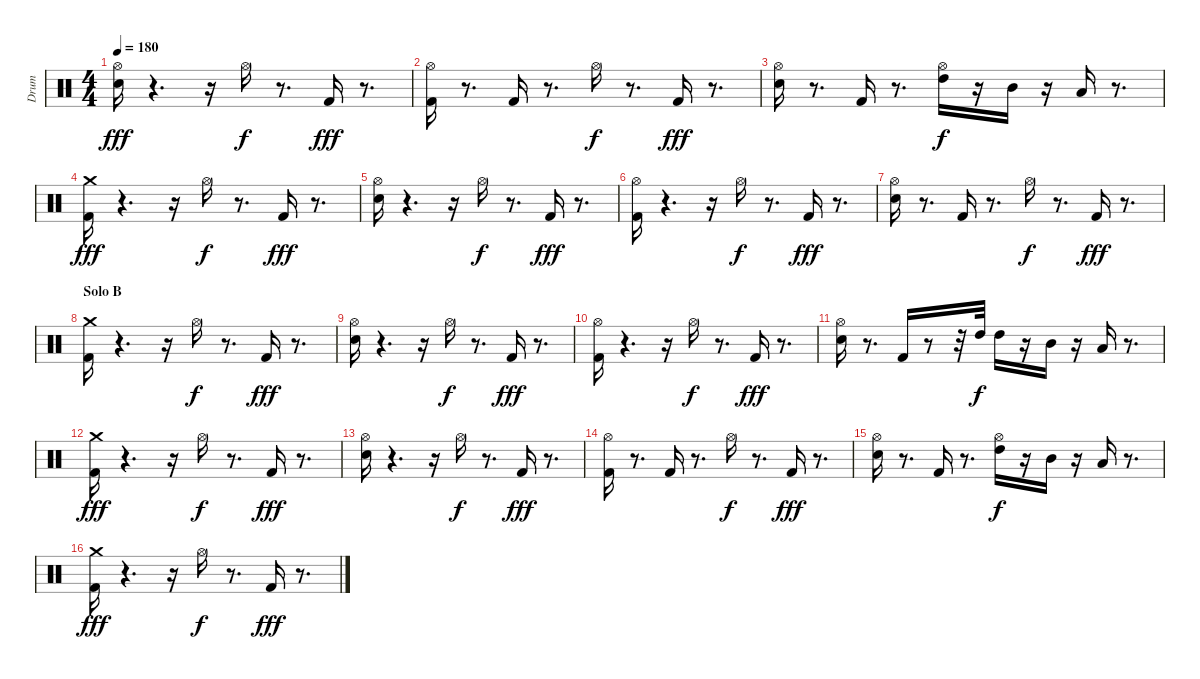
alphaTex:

\track ("Drum" "Drum") {instrument percussion}
\staff {score}
\articulation defaults
\ts (4 4)
\tempo 180
\clef neutral
\ks c
("Electric Snare (hit)" "Hi-Hat (open)").16{dy fff} r.4{d} r.16 "Hi-Hat (open)".16{dy f} r.8{d} "Kick (hit) 2".16{dy fff} r.8{d} |
("Kick (hit) 2" "Hi-Hat (open)").16 r.8{d} "Kick (hit) 2".16 r.8{d} "Hi-Hat (open)".16{dy f} r.8{d} "Kick (hit) 2".16{dy fff} r.8{d} |
("Electric Snare (hit)" "Hi-Hat (open)").16 r.8{d} "Kick (hit) 2".16 r.8{d} ("Hi-Hat (open)" "High Tom (hit)").16{dy f} r.16 "Mid Tom (hit)".16 r.16 "Low Tom (hit)".16 r.8{d} |
("Kick (hit) 2" "Crash medium (hit)").16{dy fff} r.4{d} r.16 "Hi-Hat (open)".16{dy f} r.8{d} "Kick (hit) 2".16{dy fff} r.8{d} |
("Electric Snare (hit)" "Hi-Hat (open)").16 r.4{d} r.16 "Hi-Hat (open)".16{dy f} r.8{d} "Kick (hit) 2".16{dy fff} r.8{d} |
("Kick (hit) 2" "Hi-Hat (open)").16 r.4{d} r.16 "Hi-Hat (open)".16{dy f} r.8{d} "Kick (hit) 2".16{dy fff} r.8{d} |
("Electric Snare (hit)" "Hi-Hat (open)").16 r.8{d} "Kick (hit) 2".16 r.8{d} "Hi-Hat (open)".16{dy f} r.8{d} "Kick (hit) 2".16{dy fff} r.8{d} |
\section ("" "Solo B")
("Kick (hit) 2" "Crash medium (hit)").16 r.4{d} r.16 "Hi-Hat (open)".16{dy f} r.8{d} "Kick (hit) 2".16{dy fff} r.8{d} |
("Electric Snare (hit)" "Hi-Hat (open)").16 r.4{d} r.16 "Hi-Hat (open)".16{dy f} r.8{d} "Kick (hit) 2".16{dy fff} r.8{d} |
("Kick (hit) 2" "Hi-Hat (open)").16 r.4{d} r.16 "Hi-Hat (open)".16{dy f} r.8{d} "Kick (hit) 2".16{dy fff} r.8{d} |
("Electric Snare (hit)" "Hi-Hat (open)").16 r.8{d} "Kick (hit) 2".16 r.8 r.32 "High Tom (hit)".32{dy f} "High Tom (hit)".16 r.16 "Mid Tom (hit)".16 r.16 "Low Tom (hit)".16 r.8{d} |
("Kick (hit) 2" "Crash medium (hit)").16{dy fff} r.4{d} r.16 "Hi-Hat (open)".16{dy f} r.8{d} "Kick (hit) 2".16{dy fff} r.8{d} |
("Electric Snare (hit)" "Hi-Hat (open)").16 r.4{d} r.16 "Hi-Hat (open)".16{dy f} r.8{d} "Kick (hit) 2".16{dy fff} r.8{d} |
("Kick (hit) 2" "Hi-Hat (open)").16 r.8{d} "Kick (hit) 2".16 r.8{d} "Hi-Hat (open)".16{dy f} r.8{d} "Kick (hit) 2".16{dy fff} r.8{d} |
("Electric Snare (hit)" "Hi-Hat (open)").16 r.8{d} "Kick (hit) 2".16 r.8{d} ("High Tom (hit)" "Hi-Hat (open)").16{dy f} r.16 "Mid Tom (hit)".16 r.16 "Low Tom (hit)".16 r.8{d} |
("Kick (hit) 2" "Crash medium (hit)").16{dy fff} r.4{d} r.16 "Hi-Hat (open)".16{dy f} r.8{d} "Kick (hit) 2".16{dy fff} r.8{d}
